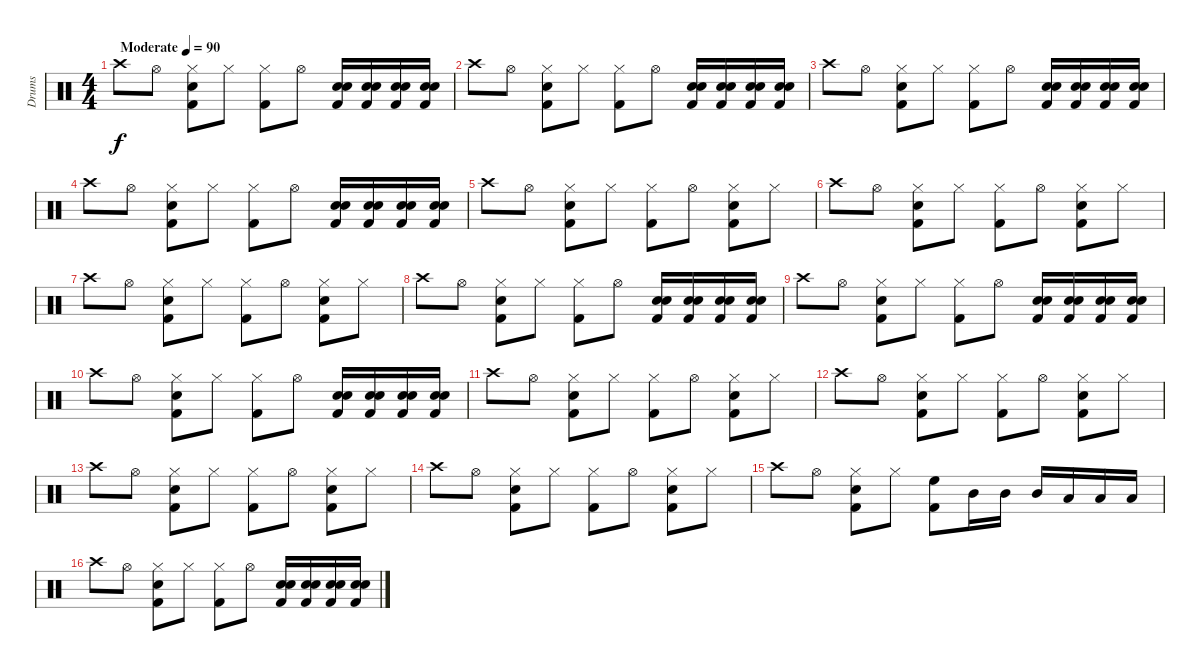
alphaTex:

\track ("Drums" "Drums") {instrument percussion}
\staff {score}
\articulation defaults
\ts (4 4)
\tempo (90 "Moderate")
\clef neutral
\ks c "Crash high (hit)".8{dy f} "Hi-Hat (open)".8
("Kick (hit) 2" "Snare (hit) 2" "Hi-Hat (closed)").8 "Hi-Hat (closed)".8 ("Kick (hit) 2" "Hi-Hat (closed)").8 "Hi-Hat (open)".8 ("Snare (hit) 2" "Kick (hit) 2" "Snare (hit) 2").16 ("Snare (hit) 2" "Kick (hit) 2" "Snare (hit) 2").16 ("Snare (hit) 2" "Kick (hit) 2" "Snare (hit) 2").16 ("Snare (hit) 2" "Kick (hit) 2" "Snare (hit) 2").16 |
"Crash high (hit)".8 "Hi-Hat (open)".8 ("Kick (hit) 2" "Snare (hit) 2" "Hi-Hat (closed)").8 "Hi-Hat (closed)".8 ("Kick (hit) 2" "Hi-Hat (closed)").8 "Hi-Hat (open)".8 ("Snare (hit) 2" "Kick (hit) 2" "Snare (hit) 2").16 ("Snare (hit) 2" "Kick (hit) 2" "Snare (hit) 2").16 ("Snare (hit) 2" "Kick (hit) 2" "Snare (hit) 2").16 ("Snare (hit) 2" "Kick (hit) 2" "Snare (hit) 2").16 |
"Crash high (hit)".8 "Hi-Hat (open)".8 ("Kick (hit) 2" "Snare (hit) 2" "Hi-Hat (closed)").8 "Hi-Hat (closed)".8 ("Kick (hit) 2" "Hi-Hat (closed)").8 "Hi-Hat (open)".8 ("Snare (hit) 2" "Kick (hit) 2" "Snare (hit) 2").16 ("Snare (hit) 2" "Kick (hit) 2" "Snare (hit) 2").16 ("Snare (hit) 2" "Kick (hit) 2" "Snare (hit) 2").16 ("Snare (hit) 2" "Kick (hit) 2" "Snare (hit) 2").16 |
"Crash high (hit)".8 "Hi-Hat (open)".8 ("Kick (hit) 2" "Snare (hit) 2" "Hi-Hat (closed)").8 "Hi-Hat (closed)".8 ("Kick (hit) 2" "Hi-Hat (closed)").8 "Hi-Hat (open)".8 ("Snare (hit) 2" "Kick (hit) 2" "Snare (hit) 2").16 ("Snare (hit) 2" "Kick (hit) 2" "Snare (hit) 2").16 ("Snare (hit) 2" "Kick (hit) 2" "Snare (hit) 2").16 ("Snare (hit) 2" "Kick (hit) 2" "Snare (hit) 2").16 |
"Crash high (hit)".8 "Hi-Hat (open)".8 ("Kick (hit) 2" "Snare (hit) 2" "Hi-Hat (closed)").8 "Hi-Hat (closed)".8 ("Kick (hit) 2" "Hi-Hat (closed)").8 "Hi-Hat (open)".8 ("Kick (hit) 2" "Snare (hit) 2" "Hi-Hat (closed)").8 "Hi-Hat (closed)".8 |
"Crash high (hit)".8 "Hi-Hat (open)".8 ("Kick (hit) 2" "Snare (hit) 2" "Hi-Hat (closed)").8 "Hi-Hat (closed)".8 ("Kick (hit) 2" "Hi-Hat (closed)").8 "Hi-Hat (open)".8 ("Kick (hit) 2" "Snare (hit) 2" "Hi-Hat (closed)").8 "Hi-Hat (closed)".8 |
"Crash high (hit)".8 "Hi-Hat (open)".8 ("Kick (hit) 2" "Snare (hit) 2" "Hi-Hat (closed)").8 "Hi-Hat (closed)".8 ("Kick (hit) 2" "Hi-Hat (closed)").8 "Hi-Hat (open)".8 ("Kick (hit) 2" "Snare (hit) 2" "Hi-Hat (closed)").8 "Hi-Hat (closed)".8 |
"Crash high (hit)".8 "Hi-Hat (open)".8 ("Kick (hit) 2" "Snare (hit) 2" "Hi-Hat (closed)").8 "Hi-Hat (closed)".8 ("Kick (hit) 2" "Hi-Hat (closed)").8 "Hi-Hat (open)".8 ("Snare (hit) 2" "Kick (hit) 2" "Snare (hit) 2").16 ("Snare (hit) 2" "Kick (hit) 2" "Snare (hit) 2").16 ("Snare (hit) 2" "Kick (hit) 2" "Snare (hit) 2").16 ("Snare (hit) 2" "Kick (hit) 2" "Snare (hit) 2").16 |
"Crash high (hit)".8 "Hi-Hat (open)".8 ("Kick (hit) 2" "Snare (hit) 2" "Hi-Hat (closed)").8 "Hi-Hat (closed)".8 ("Kick (hit) 2" "Hi-Hat (closed)").8 "Hi-Hat (open)".8 ("Snare (hit) 2" "Kick (hit) 2" "Snare (hit) 2").16 ("Snare (hit) 2" "Kick (hit) 2" "Snare (hit) 2").16 ("Snare (hit) 2" "Kick (hit) 2" "Snare (hit) 2").16 ("Snare (hit) 2" "Kick (hit) 2" "Snare (hit) 2").16 |
"Crash high (hit)".8 "Hi-Hat (open)".8 ("Kick (hit) 2" "Snare (hit) 2" "Hi-Hat (closed)").8 "Hi-Hat (closed)".8 ("Kick (hit) 2" "Hi-Hat (closed)").8 "Hi-Hat (open)".8 ("Snare (hit) 2" "Kick (hit) 2" "Snare (hit) 2").16 ("Snare (hit) 2" "Kick (hit) 2" "Snare (hit) 2").16 ("Snare (hit) 2" "Kick (hit) 2" "Snare (hit) 2").16 ("Snare (hit) 2" "Kick (hit) 2" "Snare (hit) 2").16 |
"Crash high (hit)".8 "Hi-Hat (open)".8 ("Kick (hit) 2" "Snare (hit) 2" "Hi-Hat (closed)").8 "Hi-Hat (closed)".8 ("Kick (hit) 2" "Hi-Hat (closed)").8 "Hi-Hat (open)".8 ("Kick (hit) 2" "Snare (hit) 2" "Hi-Hat (closed)").8 "Hi-Hat (closed)".8 |
"Crash high (hit)".8 "Hi-Hat (open)".8 ("Kick (hit) 2" "Snare (hit) 2" "Hi-Hat (closed)").8 "Hi-Hat (closed)".8 ("Kick (hit) 2" "Hi-Hat (closed)").8 "Hi-Hat (open)".8 ("Kick (hit) 2" "Snare (hit) 2" "Hi-Hat (closed)").8 "Hi-Hat (closed)".8 |
"Crash high (hit)".8 "Hi-Hat (open)".8 ("Kick (hit) 2" "Snare (hit) 2" "Hi-Hat (closed)").8 "Hi-Hat (closed)".8 ("Kick (hit) 2" "Hi-Hat (closed)").8 "Hi-Hat (open)".8 ("Kick (hit) 2" "Snare (hit) 2" "Hi-Hat (closed)").8 "Hi-Hat (closed)".8 |
"Crash high (hit)".8 "Hi-Hat (open)".8 ("Kick (hit) 2" "Snare (hit) 2" "Hi-Hat (closed)").8 "Hi-Hat (closed)".8 ("Kick (hit) 2" "Hi-Hat (closed)").8 "Hi-Hat (open)".8 ("Kick (hit) 2" "Snare (hit) 2" "Hi-Hat (closed)").8 "Hi-Hat (closed)".8 |
"Crash high (hit)".8 "Hi-Hat (open)".8 ("Kick (hit) 2" "Snare (hit) 2" "Hi-Hat (closed)").8 "Hi-Hat (closed)".8 ("Kick (hit) 2" "High Floor Tom (hit)").8 "Mid Tom (hit)".16 "Mid Tom (hit)".16 "Mid Tom (hit)".16 "Low Tom (hit)".16 "Low Tom (hit)".16 "Low Tom (hit)".16 |
"Crash high (hit)".8 "Hi-Hat (open)".8 ("Kick (hit) 2" "Snare (hit) 2" "Hi-Hat (closed)").8 "Hi-Hat (closed)".8 ("Kick (hit) 2" "Hi-Hat (closed)").8 "Hi-Hat (open)".8 ("Snare (hit) 2" "Kick (hit) 2" "Snare (hit) 2").16 ("Snare (hit) 2" "Kick (hit) 2" "Snare (hit) 2").16 ("Snare (hit) 2" "Kick (hit) 2" "Snare (hit) 2").16 ("Snare (hit) 2" "Kick (hit) 2" "Snare (hit) 2").16
